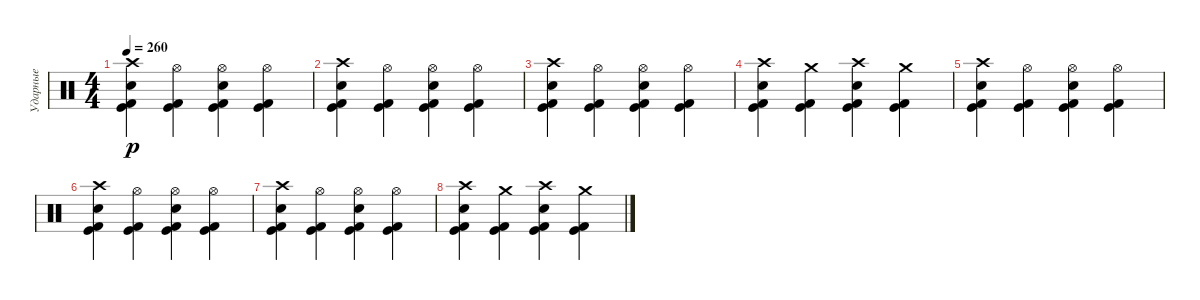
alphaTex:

\track ("Ударные" "Ударные") {instrument percussion}
\staff {score}
\articulation defaults
\ts (4 4)
\tempo 260
\clef neutral
\ks c
("Kick (hit) 2" "Kick (hit)" "Snare (hit) 2" "Crash high (hit)").4{dy p} ("Kick (hit)" "Kick (hit) 2" "Hi-Hat (open)").4 ("Kick (hit) 2" "Kick (hit)" "Snare (hit) 2" "Hi-Hat (open)").4 ("Kick (hit)" "Kick (hit) 2" "Hi-Hat (open)").4 |
("Kick (hit) 2" "Kick (hit)" "Snare (hit) 2" "Crash high (hit)").4 ("Kick (hit)" "Kick (hit) 2" "Hi-Hat (open)").4 ("Kick (hit) 2" "Kick (hit)" "Snare (hit) 2" "Hi-Hat (open)").4 ("Kick (hit)" "Kick (hit) 2" "Hi-Hat (open)").4 |
("Kick (hit) 2" "Kick (hit)" "Snare (hit) 2" "Crash high (hit)").4 ("Kick (hit)" "Kick (hit) 2" "Hi-Hat (open)").4 ("Kick (hit) 2" "Kick (hit)" "Snare (hit) 2" "Hi-Hat (open)").4 ("Kick (hit)" "Kick (hit) 2" "Hi-Hat (open)").4 |
("Kick (hit) 2" "Kick (hit)" "Snare (hit) 2" "Crash high (hit)").4 ("Kick (hit)" "Kick (hit) 2" "Crash medium (hit)").4 ("Kick (hit) 2" "Kick (hit)" "Snare (hit) 2" "Crash high (hit)").4 ("Kick (hit)" "Kick (hit) 2" "Crash medium (hit)").4 |
("Kick (hit) 2" "Kick (hit)" "Snare (hit) 2" "Crash high (hit)").4 ("Kick (hit)" "Kick (hit) 2" "Hi-Hat (open)").4 ("Kick (hit) 2" "Kick (hit)" "Snare (hit) 2" "Hi-Hat (open)").4 ("Kick (hit)" "Kick (hit) 2" "Hi-Hat (open)").4 |
("Kick (hit) 2" "Kick (hit)" "Snare (hit) 2" "Crash high (hit)").4 ("Kick (hit)" "Kick (hit) 2" "Hi-Hat (open)").4 ("Kick (hit) 2" "Kick (hit)" "Snare (hit) 2" "Hi-Hat (open)").4 ("Kick (hit)" "Kick (hit) 2" "Hi-Hat (open)").4 |
("Kick (hit) 2" "Kick (hit)" "Snare (hit) 2" "Crash high (hit)").4 ("Kick (hit)" "Kick (hit) 2" "Hi-Hat (open)").4 ("Kick (hit) 2" "Kick (hit)" "Snare (hit) 2" "Hi-Hat (open)").4 ("Kick (hit)" "Kick (hit) 2" "Hi-Hat (open)").4 |
("Kick (hit) 2" "Kick (hit)" "Snare (hit) 2" "Crash high (hit)").4 ("Kick (hit)" "Kick (hit) 2" "Crash medium (hit)").4 ("Kick (hit) 2" "Kick (hit)" "Snare (hit) 2" "Crash high (hit)").4 ("Kick (hit)" "Kick (hit) 2" "Crash medium (hit)").4
